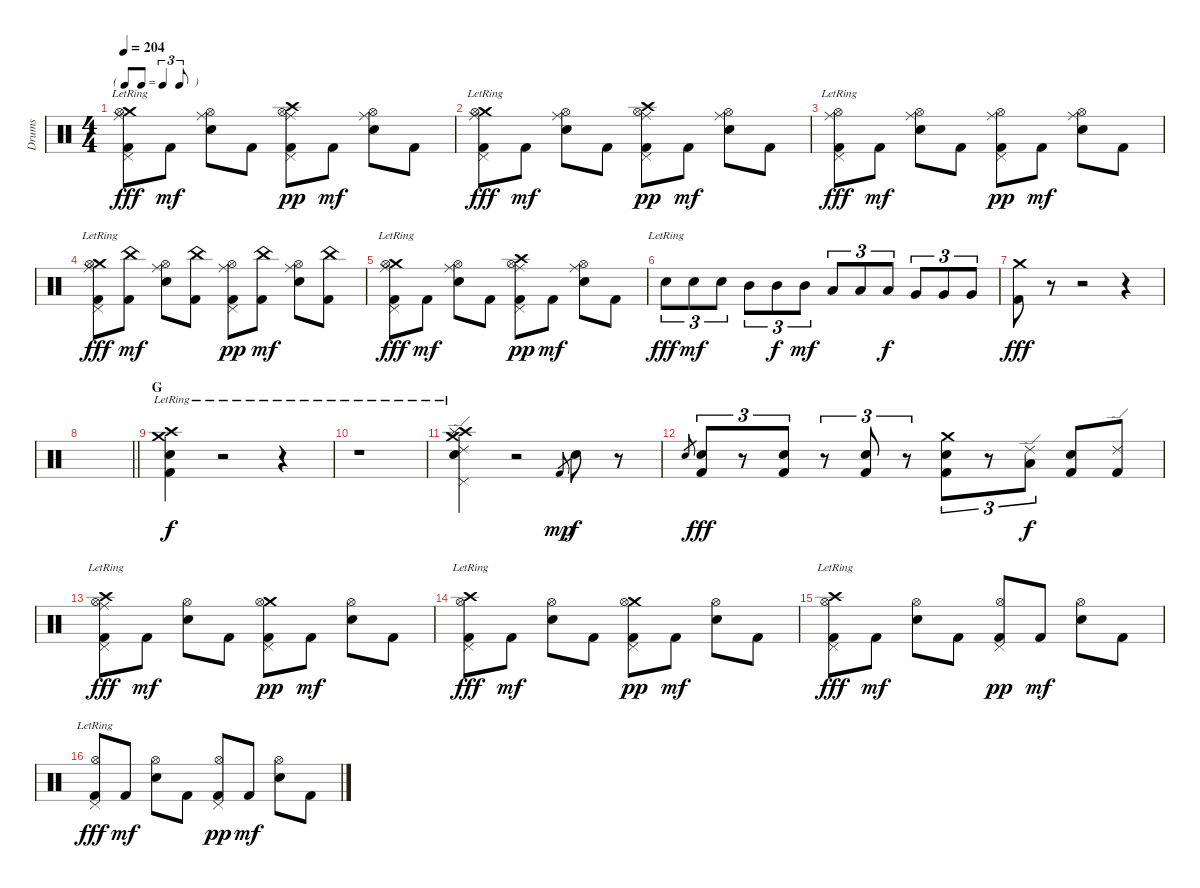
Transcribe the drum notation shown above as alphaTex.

\track ("Drums" "Drums") {instrument percussion}
\staff {score}
\articulation defaults
\ts (4 4)
\tf triplet8th
\tempo 204
\clef neutral
\ks c
("Crash medium (hit)" "Ride (middle)" "Pedal Hi-Hat (hit)" "Hi-Hat (open)" "Kick (hit) 2"{lr}).8{dy fff} "Kick (hit) 2".8{dy mf} ("Ride (middle)" "Hi-Hat (open)" "Electric Snare (hit)").8 "Kick (hit) 2".8 ("Crash high (hit)" "Ride (middle)" "Pedal Hi-Hat (hit)" "Hi-Hat (open)" "Kick (hit) 2").8{dy pp} "Kick (hit) 2".8{dy mf} ("Ride (middle)" "Hi-Hat (open)" "Electric Snare (hit)").8 "Kick (hit) 2".8 |
("Crash medium (hit)" "Ride (middle)" "Pedal Hi-Hat (hit)" "Hi-Hat (open)" "Kick (hit) 2"{lr}).8{dy fff} "Kick (hit) 2".8{dy mf} ("Ride (middle)" "Hi-Hat (open)" "Electric Snare (hit)").8 "Kick (hit) 2".8 ("Crash high (hit)" "Ride (middle)" "Pedal Hi-Hat (hit)" "Hi-Hat (open)" "Kick (hit) 2").8{dy pp} "Kick (hit) 2".8{dy mf} ("Ride (middle)" "Hi-Hat (open)" "Electric Snare (hit)").8 "Kick (hit) 2".8 |
("Ride (middle)" "Pedal Hi-Hat (hit)" "Hi-Hat (open)" "Kick (hit) 2"{lr}).8{dy fff} "Kick (hit) 2".8{dy mf} ("Ride (middle)" "Hi-Hat (open)" "Electric Snare (hit)").8 "Kick (hit) 2".8 ("Ride (middle)" "Pedal Hi-Hat (hit)" "Hi-Hat (open)" "Kick (hit) 2").8{dy pp} "Kick (hit) 2".8{dy mf} ("Ride (middle)" "Hi-Hat (open)" "Electric Snare (hit)").8 "Kick (hit) 2".8 |
("Crash medium (hit)" "Ride (middle)" "Pedal Hi-Hat (hit)" "Hi-Hat (open)" "Kick (hit) 2"{lr}).8{dy fff} ("China (hit)" "Kick (hit) 2").8{dy mf} ("Ride (middle)" "Hi-Hat (open)" "Electric Snare (hit)").8 ("China (hit)" "Kick (hit) 2").8 ("Ride (middle)" "Pedal Hi-Hat (hit)" "Hi-Hat (open)" "Kick (hit) 2").8{dy pp} ("China (hit)" "Kick (hit) 2").8{dy mf} ("Ride (middle)" "Hi-Hat (open)" "Electric Snare (hit)").8 ("China (hit)" "Kick (hit) 2").8 |
("Crash medium (hit)" "Ride (middle)" "Pedal Hi-Hat (hit)" "Hi-Hat (open)" "Kick (hit) 2"{lr}).8{dy fff} "Kick (hit) 2".8{dy mf} ("Ride (middle)" "Hi-Hat (open)" "Electric Snare (hit)").8 "Kick (hit) 2".8 ("Crash high (hit)" "Ride (middle)" "Pedal Hi-Hat (hit)" "Hi-Hat (open)" "Kick (hit) 2").8{dy pp} "Kick (hit) 2".8{dy mf} ("Ride (middle)" "Hi-Hat (open)" "Electric Snare (hit)").8 "Kick (hit) 2".8 |
"Electric Snare (hit)"{lr}.8{tu (3 2) dy fff} "Electric Snare (hit)".8{tu (3 2) dy mf} "Electric Snare (hit)".8{tu (3 2)} "Mid Tom (hit)".8{tu (3 2)} "Mid Tom (hit)".8{tu (3 2) dy f} "Mid Tom (hit)".8{tu (3 2) dy mf} "Low Tom (hit)".8{tu (3 2)} "Low Tom (hit)".8{tu (3 2)} "Low Tom (hit)".8{tu (3 2) dy f} "Very Low Tom (hit)".8{tu (3 2)} "Very Low Tom (hit)".8{tu (3 2)} "Very Low Tom (hit)".8{tu (3 2)} |
("Crash medium (hit)" "Kick (hit) 2").8{dy fff} r.8 r.2 r.4 |
\barLineRight lightlight
|
\section ("" "G")
("Crash high (hit)" "Crash medium (hit)" "Kick (hit) 2" "Electric Snare (hit)"{lr}).4{dy f} r.2 r.4 |
r.1 |
("Ride (edge) 2"{lr} "Crash medium (hit)"{lr} "Crash high (hit)"{lr} "Pedal Hi-Hat (hit)"{lr} "Splash (hit)"{lr} "Electric Snare (hit)"{lr}).4 r.2 "Kick (hit) 2".8{gr dy mp} "Electric Snare (hit)".8{dy f} r.8 |
"Electric Snare (hit)".8{gr} ("Kick (hit) 2" "Electric Snare (hit)").8{tu (3 2) dy fff} r.8{tu (3 2)} ("Kick (hit) 2" "Electric Snare (hit)").8{tu (3 2)} r.8{tu (3 2)} ("Kick (hit) 2" "Electric Snare (hit)").8{tu (3 2)} r.8{tu (3 2)} ("Crash medium (hit)" "Kick (hit) 2" "Electric Snare (hit)").8{tu (3 2)} r.8{tu (3 2)} ("Low Tom (hit)" "Ride (edge) 2").8{tu (3 2) dy f} ("Electric Snare (hit)" "Kick (hit) 2").8 ("Kick (hit) 2" "Ride (edge) 2").8 |
("Crash high (hit)" "Ride (middle)" "Pedal Hi-Hat (hit)" "Hi-Hat (open)" "Kick (hit) 2"{lr}).8{dy fff} "Kick (hit) 2".8{dy mf} ("Hi-Hat (open)" "Electric Snare (hit)").8 "Kick (hit) 2".8 ("Crash medium (hit)" "Pedal Hi-Hat (hit)" "Hi-Hat (open)" "Kick (hit) 2").8{dy pp} "Kick (hit) 2".8{dy mf} ("Hi-Hat (open)" "Electric Snare (hit)").8 "Kick (hit) 2".8 |
("Crash high (hit)" "Pedal Hi-Hat (hit)" "Hi-Hat (open)" "Kick (hit) 2"{lr}).8{dy fff} "Kick (hit) 2".8{dy mf} ("Hi-Hat (open)" "Electric Snare (hit)").8 "Kick (hit) 2".8 ("Crash medium (hit)" "Pedal Hi-Hat (hit)" "Hi-Hat (open)" "Kick (hit) 2").8{dy pp} "Kick (hit) 2".8{dy mf} ("Hi-Hat (open)" "Electric Snare (hit)").8 "Kick (hit) 2".8 |
("Crash high (hit)" "Pedal Hi-Hat (hit)" "Hi-Hat (open)" "Kick (hit) 2"{lr}).8{dy fff} "Kick (hit) 2".8{dy mf} ("Hi-Hat (open)" "Electric Snare (hit)").8 "Kick (hit) 2".8 ("Pedal Hi-Hat (hit)" "Hi-Hat (open)" "Kick (hit) 2").8{dy pp} "Kick (hit) 2".8{dy mf} ("Hi-Hat (open)" "Electric Snare (hit)").8 "Kick (hit) 2".8 |
("Pedal Hi-Hat (hit)" "Hi-Hat (open)" "Kick (hit) 2"{lr}).8{dy fff} "Kick (hit) 2".8{dy mf} ("Hi-Hat (open)" "Electric Snare (hit)").8 "Kick (hit) 2".8 ("Pedal Hi-Hat (hit)" "Hi-Hat (open)" "Kick (hit) 2").8{dy pp} "Kick (hit) 2".8{dy mf} ("Hi-Hat (open)" "Electric Snare (hit)").8 "Kick (hit) 2".8
